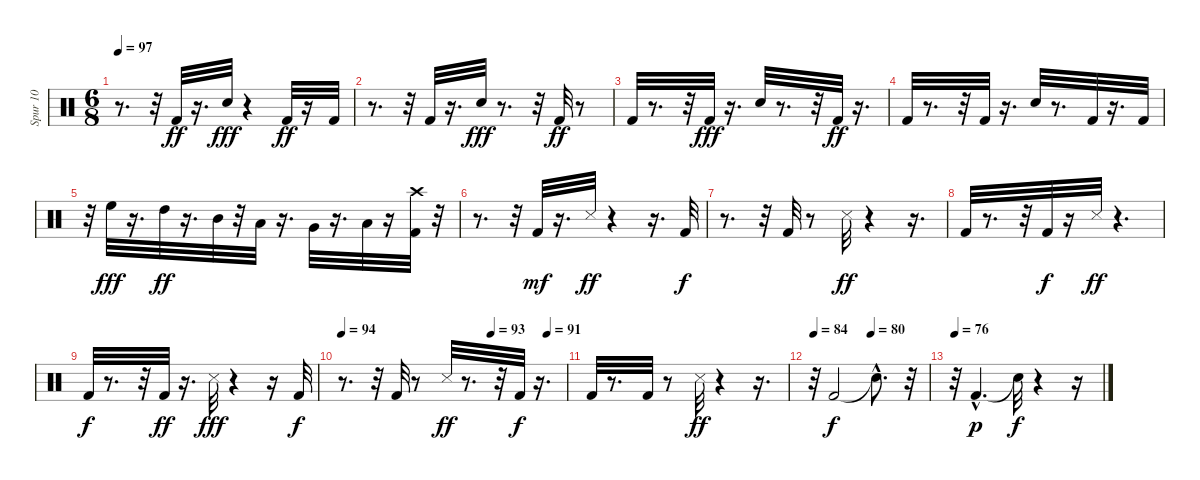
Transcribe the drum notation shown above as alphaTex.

\track ("Spur 10" "Spur 10") {instrument percussion}
\staff {score}
\articulation defaults
\ts (6 8)
\tempo 97
\clef neutral
\ks c
r.8{d dy ff} r.32 "Kick (hit) 2".32 r.16{d} "Electric Snare (hit)".32{dy fff} r.4 "Kick (hit) 2".32{dy ff} r.16 "Kick (hit) 2".32 |
r.8{d} r.32 "Kick (hit) 2".32 r.16{d} "Electric Snare (hit)".32{dy fff} r.8{d} r.32 "Kick (hit) 2".32{dy ff} r.8 |
"Kick (hit) 2".32 r.8{d} r.32 "Kick (hit) 2".32{dy fff} r.16{d} "Electric Snare (hit)".32 r.8{d} r.32 "Kick (hit) 2".32{dy ff} r.16{d} |
"Kick (hit) 2".32 r.8{d} r.32 "Kick (hit) 2".32 r.16{d} "Electric Snare (hit)".32 r.8{d} "Kick (hit) 2".32 r.16{d} "Kick (hit) 2".32 |
r.32 "High Floor Tom (hit)".32{dy fff} r.16{d} "High Tom (hit)".32{dy ff} r.16{d} "Mid Tom (hit)".32 r.32 "Low Tom (hit)".32 r.16{d} "Very Low Tom (hit)".32 r.16{d} "Low Floor Tom (hit)".32 r.16 ("Crash high (hit)" "Kick (hit) 2").32 r.32 |
r.8{d} r.32 "Kick (hit) 2".32{dy mf} r.16{d} "Snare (side stick) 3".32{dy ff} r.4 r.16{d} "Kick (hit) 2".32{dy f} |
r.8{d} r.32 "Kick (hit) 2".32 r.8 "Snare (side stick) 3".32{dy ff} r.4 r.16{d} |
"Kick (hit) 2".32 r.8{d} r.32 "Kick (hit) 2".32{dy f} r.16 "Snare (side stick) 3".32{dy ff} r.4{d} |
"Kick (hit) 2".32{dy f} r.8{d} r.32 "Kick (hit) 2".32{dy ff} r.16{d} "Snare (side stick) 3".32{dy fff} r.4 r.16 "Kick (hit) 2".32{dy f} |
\tempo 94
\tempo (93 0.6666666666666666)
\tempo (91 0.9166666666666666)
r.8{d} r.32 "Kick (hit) 2".32 r.8 "Snare (side stick) 3".32{dy ff} r.8{d} r.32 "Kick (hit) 2".32{dy f} r.16{d} |
"Kick (hit) 2".32 r.8{d} "Kick (hit) 2".32 r.8 "Snare (side stick) 3".32{dy ff} r.4 r.16{d} |
\tempo 84
\tempo (80 0.5)
r.32 "Kick (hit) 2".2{dy f} "Snare (hit)"{hac t}.8{d} r.32 |
\tempo 76
r.32 "Kick (hit) 2"{hac}.4{d dy p} "Snare (hit)"{t}.32{dy f} r.4 r.16
